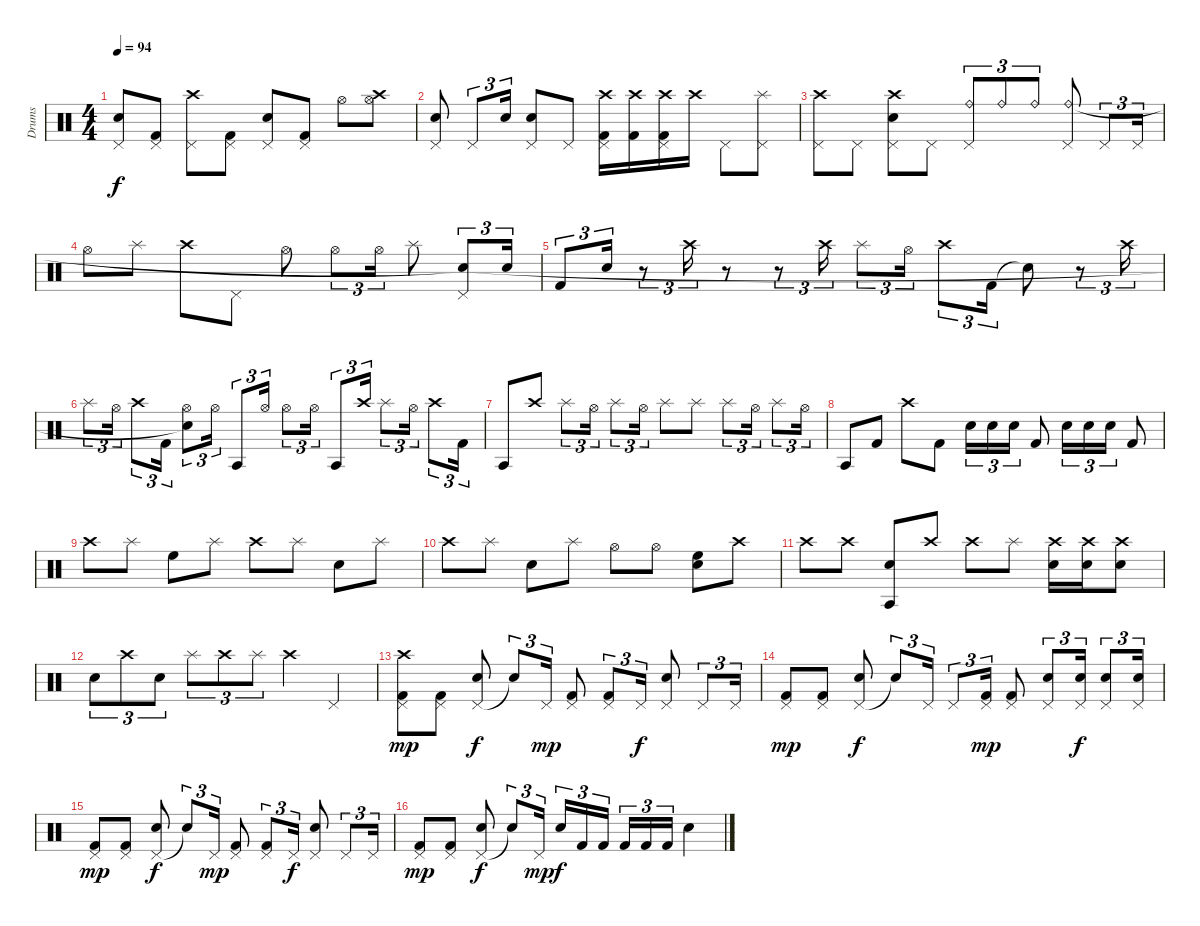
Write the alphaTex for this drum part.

\track ("Drums" "Drums") {instrument percussion}
\staff {score}
\articulation defaults
\ts (4 4)
\tempo 94
\clef neutral
\ks c
("Pedal Hi-Hat (hit)" "Electric Snare (hit)").8{dy f} ("Pedal Hi-Hat (hit)" "Kick (hit) 2").8 ("Pedal Hi-Hat (hit)" "Crash high (hit)").8 ("Pedal Hi-Hat (hit)" "Kick (hit) 2").8 ("Pedal Hi-Hat (hit)" "Electric Snare (hit)").8 ("Pedal Hi-Hat (hit)" "Kick (hit) 2").8 "Hi-Hat (open)".8 ("Hi-Hat (open)" "Crash high (hit)").8 |
("Pedal Hi-Hat (hit)" "Electric Snare (hit)").8 "Pedal Hi-Hat (hit)".8{tu (3 2)} "Electric Snare (hit)".16{tu (3 2)} ("Pedal Hi-Hat (hit)" "Electric Snare (hit)").8 "Pedal Hi-Hat (hit)".8 ("Pedal Hi-Hat (hit)" "Kick (hit) 2" "Crash high (hit)").16 ("Kick (hit) 2" "Crash high (hit)").16 ("Pedal Hi-Hat (hit)" "Kick (hit) 2" "Crash high (hit)").16 "Crash high (hit)".16 "Pedal Hi-Hat (hit)".8 ("Pedal Hi-Hat (hit)" "Splash (hit)").8 |
("Pedal Hi-Hat (hit)" "Crash high (hit)").8 "Pedal Hi-Hat (hit)".8 ("Pedal Hi-Hat (hit)" "Electric Snare (hit)" "Crash high (hit)").8 "Pedal Hi-Hat (hit)".8 ("Pedal Hi-Hat (hit)" "Ride (bell)").8{tu (3 2)} "Ride (bell)".8{tu (3 2)} "Ride (bell)".8{tu (3 2)} ("Pedal Hi-Hat (hit)" "Ride (bell)").8 "Pedal Hi-Hat (hit)".8{tu (3 2)} "Pedal Hi-Hat (hit)".16{tu (3 2)} |
"Hi-Hat (open)".8 "Splash (hit)".8 "Crash high (hit)".8 "Pedal Hi-Hat (hit)".8 "Hi-Hat (open)".8 "Hi-Hat (open)".8{tu (3 2)} "Hi-Hat (open)".16{tu (3 2)} "Splash (hit)".8 ("Pedal Hi-Hat (hit)" "Electric Snare (hit)"{t}).8{tu (3 2)} "Electric Snare (hit)".16{tu (3 2)} |
"Kick (hit) 2".8{tu (3 2)} "Electric Snare (hit)".16{tu (3 2)} r.8{tu (3 2)} "Crash high (hit)".16{tu (3 2)} r.8 r.8{tu (3 2)} "Crash high (hit)".16{tu (3 2)} "Splash (hit)".8{tu (3 2)} "Hi-Hat (open)".16{tu (3 2)} "Crash high (hit)".8{tu (3 2)} "Kick (hit) 2".16{tu (3 2)} "Snare (hit)"{t}.8 r.8{tu (3 2)} "Crash high (hit)".16{tu (3 2)} |
"Splash (hit)".8{tu (3 2)} "Hi-Hat (open)".16{tu (3 2)} "Crash high (hit)".8{tu (3 2)} "Kick (hit) 2".16{tu (3 2)} ("Hi-Hat (open)" "Snare (hit)"{t}).8{tu (3 2)} "Hi-Hat (open)".16{tu (3 2)} "Agogo tow (hit)".8{tu (3 2)} "Hi-Hat (open)".16{tu (3 2)} "Hi-Hat (open)".8{tu (3 2)} "Hi-Hat (open)".16{tu (3 2)} "Agogo tow (hit)".8{tu (3 2)} "Crash high (hit)".16{tu (3 2)} "Splash (hit)".8{tu (3 2)} "Hi-Hat (open)".16{tu (3 2)} "Crash high (hit)".8{tu (3 2)} "Kick (hit) 2".16{tu (3 2)} |
"Agogo tow (hit)".8 "Crash high (hit)".8 "Splash (hit)".8{tu (3 2)} "Hi-Hat (open)".16{tu (3 2)} "Splash (hit)".8{tu (3 2)} "Hi-Hat (open)".16{tu (3 2)} "Splash (hit)".8 "Splash (hit)".8 "Splash (hit)".8{tu (3 2)} "Hi-Hat (open)".16{tu (3 2)} "Splash (hit)".8{tu (3 2)} "Hi-Hat (open)".16{tu (3 2)} |
"Agogo tow (hit)".8 "Kick (hit) 2".8 "Crash high (hit)".8 "Kick (hit) 2".8 "Electric Snare (hit)".16{tu (3 2)} "Electric Snare (hit)".16{tu (3 2)} "Electric Snare (hit)".16{tu (3 2)} "Kick (hit) 2".8 "Electric Snare (hit)".16{tu (3 2)} "Electric Snare (hit)".16{tu (3 2)} "Electric Snare (hit)".16{tu (3 2)} "Kick (hit) 2".8 |
"Crash high (hit)".8 "Splash (hit)".8 "High Floor Tom (hit)".8 "Splash (hit)".8 "Crash high (hit)".8 "Splash (hit)".8 "Electric Snare (hit)".8 "Splash (hit)".8 |
"Crash high (hit)".8 "Splash (hit)".8 "Electric Snare (hit)".8 "Splash (hit)".8 "Hi-Hat (open)".8 "Hi-Hat (open)".8 ("High Floor Tom (hit)" "Electric Snare (hit)").8 "Crash high (hit)".8 |
"Crash high (hit)".8 "Crash high (hit)".8 ("Agogo tow (hit)" "Electric Snare (hit)").8 "Crash high (hit)".8 "Crash high (hit)".8 "Splash (hit)".8 ("Crash high (hit)" "Electric Snare (hit)").16 ("Crash high (hit)" "Electric Snare (hit)").16 ("Crash high (hit)" "Electric Snare (hit)").8 |
"Electric Snare (hit)".8{tu (3 2)} "Crash high (hit)".8{tu (3 2)} "Electric Snare (hit)".8{tu (3 2)} "Splash (hit)".8{tu (3 2)} "Crash high (hit)".8{tu (3 2)} "Splash (hit)".8{tu (3 2)} "Crash high (hit)".4 "Pedal Hi-Hat (hit)".4 |
("Pedal Hi-Hat (hit)" "Kick (hit) 2" "Crash high (hit)").8{dy mp} ("Pedal Hi-Hat (hit)" "Kick (hit) 2").8 ("Pedal Hi-Hat (hit)" "Electric Snare (hit)").8{dy f} "Snare (hit)"{t}.8{tu (3 2)} "Pedal Hi-Hat (hit)".16{tu (3 2) dy mp} ("Pedal Hi-Hat (hit)" "Kick (hit) 2").8 ("Pedal Hi-Hat (hit)" "Kick (hit) 2").8{tu (3 2)} "Pedal Hi-Hat (hit)".16{tu (3 2) dy f} ("Pedal Hi-Hat (hit)" "Electric Snare (hit)").8 "Pedal Hi-Hat (hit)".8{tu (3 2)} "Pedal Hi-Hat (hit)".16{tu (3 2)} |
("Pedal Hi-Hat (hit)" "Kick (hit) 2").8{dy mp} ("Pedal Hi-Hat (hit)" "Kick (hit) 2").8 ("Pedal Hi-Hat (hit)" "Electric Snare (hit)").8{dy f} "Snare (hit)"{t}.8{tu (3 2)} "Pedal Hi-Hat (hit)".16{tu (3 2)} "Pedal Hi-Hat (hit)".8{tu (3 2)} ("Pedal Hi-Hat (hit)" "Kick (hit) 2").16{tu (3 2) dy mp} ("Pedal Hi-Hat (hit)" "Kick (hit) 2").8 ("Pedal Hi-Hat (hit)" "Electric Snare (hit)").8{tu (3 2)} ("Pedal Hi-Hat (hit)" "Electric Snare (hit)").16{tu (3 2) dy f} ("Pedal Hi-Hat (hit)" "Electric Snare (hit)").8{tu (3 2)} ("Pedal Hi-Hat (hit)" "Electric Snare (hit)").16{tu (3 2)} |
("Pedal Hi-Hat (hit)" "Kick (hit) 2").8{dy mp} ("Pedal Hi-Hat (hit)" "Kick (hit) 2").8 ("Pedal Hi-Hat (hit)" "Electric Snare (hit)").8{dy f} "Snare (hit)"{t}.8{tu (3 2)} "Pedal Hi-Hat (hit)".16{tu (3 2) dy mp} ("Pedal Hi-Hat (hit)" "Kick (hit) 2").8 ("Pedal Hi-Hat (hit)" "Kick (hit) 2").8{tu (3 2)} "Pedal Hi-Hat (hit)".16{tu (3 2) dy f} ("Pedal Hi-Hat (hit)" "Electric Snare (hit)").8 "Pedal Hi-Hat (hit)".8{tu (3 2)} "Pedal Hi-Hat (hit)".16{tu (3 2)} |
("Pedal Hi-Hat (hit)" "Kick (hit) 2").8{dy mp} ("Pedal Hi-Hat (hit)" "Kick (hit) 2").8 ("Pedal Hi-Hat (hit)" "Electric Snare (hit)").8{dy f} "Snare (hit)"{t}.8{tu (3 2)} "Pedal Hi-Hat (hit)".16{tu (3 2) dy mp} "Electric Snare (hit)".16{tu (3 2) dy f} "Kick (hit) 2".16{tu (3 2)} "Kick (hit) 2".16{tu (3 2)} "Kick (hit) 2".16{tu (3 2)} "Kick (hit) 2".16{tu (3 2)} "Kick (hit) 2".16{tu (3 2)} "Electric Snare (hit)".4
